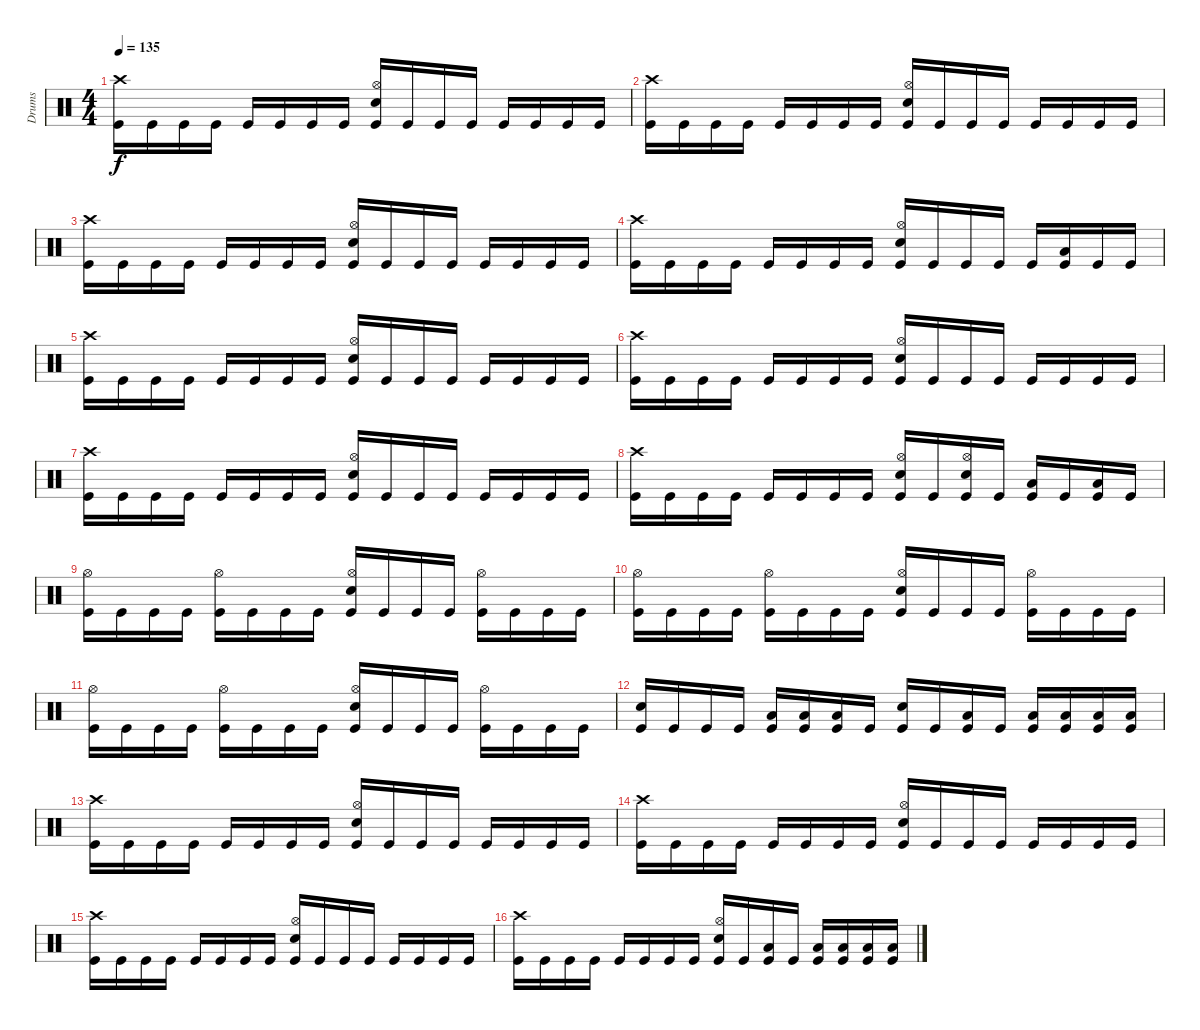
\track ("Drums" "Drums") {instrument percussion}
\staff {score}
\articulation defaults
\ts (4 4)
\tempo 135
\clef neutral
\ks c
("Crash high (hit)" "Kick (hit)").16{dy f} "Kick (hit)".16 "Kick (hit)".16 "Kick (hit)".16 "Kick (hit)".16 "Kick (hit)".16 "Kick (hit)".16 "Kick (hit)".16 ("Hi-Hat (open)" "Electric Snare (hit)" "Kick (hit)").16 "Kick (hit)".16 "Kick (hit)".16 "Kick (hit)".16 "Kick (hit)".16 "Kick (hit)".16 "Kick (hit)".16 "Kick (hit)".16 |
("Crash high (hit)" "Kick (hit)").16 "Kick (hit)".16 "Kick (hit)".16 "Kick (hit)".16 "Kick (hit)".16 "Kick (hit)".16 "Kick (hit)".16 "Kick (hit)".16 ("Hi-Hat (open)" "Electric Snare (hit)" "Kick (hit)").16 "Kick (hit)".16 "Kick (hit)".16 "Kick (hit)".16 "Kick (hit)".16 "Kick (hit)".16 "Kick (hit)".16 "Kick (hit)".16 |
("Crash high (hit)" "Kick (hit)").16 "Kick (hit)".16 "Kick (hit)".16 "Kick (hit)".16 "Kick (hit)".16 "Kick (hit)".16 "Kick (hit)".16 "Kick (hit)".16 ("Hi-Hat (open)" "Electric Snare (hit)" "Kick (hit)").16 "Kick (hit)".16 "Kick (hit)".16 "Kick (hit)".16 "Kick (hit)".16 "Kick (hit)".16 "Kick (hit)".16 "Kick (hit)".16 |
("Crash high (hit)" "Kick (hit)").16 "Kick (hit)".16 "Kick (hit)".16 "Kick (hit)".16 "Kick (hit)".16 "Kick (hit)".16 "Kick (hit)".16 "Kick (hit)".16 ("Hi-Hat (open)" "Electric Snare (hit)" "Kick (hit)").16 "Kick (hit)".16 "Kick (hit)".16 "Kick (hit)".16 "Kick (hit)".16 ("Low Tom (hit)" "Kick (hit)").16 "Kick (hit)".16 "Kick (hit)".16 |
("Crash high (hit)" "Kick (hit)").16 "Kick (hit)".16 "Kick (hit)".16 "Kick (hit)".16 "Kick (hit)".16 "Kick (hit)".16 "Kick (hit)".16 "Kick (hit)".16 ("Hi-Hat (open)" "Electric Snare (hit)" "Kick (hit)").16 "Kick (hit)".16 "Kick (hit)".16 "Kick (hit)".16 "Kick (hit)".16 "Kick (hit)".16 "Kick (hit)".16 "Kick (hit)".16 |
("Crash high (hit)" "Kick (hit)").16 "Kick (hit)".16 "Kick (hit)".16 "Kick (hit)".16 "Kick (hit)".16 "Kick (hit)".16 "Kick (hit)".16 "Kick (hit)".16 ("Hi-Hat (open)" "Electric Snare (hit)" "Kick (hit)").16 "Kick (hit)".16 "Kick (hit)".16 "Kick (hit)".16 "Kick (hit)".16 "Kick (hit)".16 "Kick (hit)".16 "Kick (hit)".16 |
("Crash high (hit)" "Kick (hit)").16 "Kick (hit)".16 "Kick (hit)".16 "Kick (hit)".16 "Kick (hit)".16 "Kick (hit)".16 "Kick (hit)".16 "Kick (hit)".16 ("Hi-Hat (open)" "Electric Snare (hit)" "Kick (hit)").16 "Kick (hit)".16 "Kick (hit)".16 "Kick (hit)".16 "Kick (hit)".16 "Kick (hit)".16 "Kick (hit)".16 "Kick (hit)".16 |
("Crash high (hit)" "Kick (hit)").16 "Kick (hit)".16 "Kick (hit)".16 "Kick (hit)".16 "Kick (hit)".16 "Kick (hit)".16 "Kick (hit)".16 "Kick (hit)".16 ("Hi-Hat (open)" "Electric Snare (hit)" "Kick (hit)").16 "Kick (hit)".16 ("Hi-Hat (open)" "Electric Snare (hit)" "Kick (hit)").16 "Kick (hit)".16 ("Low Tom (hit)" "Kick (hit)").16 "Kick (hit)".16 ("Low Tom (hit)" "Kick (hit)").16 "Kick (hit)".16 |
("Hi-Hat (open)" "Kick (hit)").16 "Kick (hit)".16 "Kick (hit)".16 "Kick (hit)".16 ("Hi-Hat (open)" "Kick (hit)").16 "Kick (hit)".16 "Kick (hit)".16 "Kick (hit)".16 ("Hi-Hat (open)" "Electric Snare (hit)" "Kick (hit)").16 "Kick (hit)".16 "Kick (hit)".16 "Kick (hit)".16 ("Hi-Hat (open)" "Kick (hit)").16 "Kick (hit)".16 "Kick (hit)".16 "Kick (hit)".16 |
("Hi-Hat (open)" "Kick (hit)").16 "Kick (hit)".16 "Kick (hit)".16 "Kick (hit)".16 ("Hi-Hat (open)" "Kick (hit)").16 "Kick (hit)".16 "Kick (hit)".16 "Kick (hit)".16 ("Hi-Hat (open)" "Electric Snare (hit)" "Kick (hit)").16 "Kick (hit)".16 "Kick (hit)".16 "Kick (hit)".16 ("Hi-Hat (open)" "Kick (hit)").16 "Kick (hit)".16 "Kick (hit)".16 "Kick (hit)".16 |
("Hi-Hat (open)" "Kick (hit)").16 "Kick (hit)".16 "Kick (hit)".16 "Kick (hit)".16 ("Hi-Hat (open)" "Kick (hit)").16 "Kick (hit)".16 "Kick (hit)".16 "Kick (hit)".16 ("Hi-Hat (open)" "Electric Snare (hit)" "Kick (hit)").16 "Kick (hit)".16 "Kick (hit)".16 "Kick (hit)".16 ("Hi-Hat (open)" "Kick (hit)").16 "Kick (hit)".16 "Kick (hit)".16 "Kick (hit)".16 |
("Electric Snare (hit)" "Kick (hit)").16 "Kick (hit)".16 "Kick (hit)".16 "Kick (hit)".16 ("Low Tom (hit)" "Kick (hit)").16 ("Low Tom (hit)" "Kick (hit)").16 ("Low Tom (hit)" "Kick (hit)").16 "Kick (hit)".16 ("Electric Snare (hit)" "Kick (hit)").16 "Kick (hit)".16 ("Low Tom (hit)" "Kick (hit)").16 "Kick (hit)".16 ("Low Tom (hit)" "Kick (hit)").16 ("Low Tom (hit)" "Kick (hit)").16 ("Low Tom (hit)" "Kick (hit)").16 ("Low Tom (hit)" "Kick (hit)").16 |
("Crash high (hit)" "Kick (hit)").16 "Kick (hit)".16 "Kick (hit)".16 "Kick (hit)".16 "Kick (hit)".16 "Kick (hit)".16 "Kick (hit)".16 "Kick (hit)".16 ("Hi-Hat (open)" "Electric Snare (hit)" "Kick (hit)").16 "Kick (hit)".16 "Kick (hit)".16 "Kick (hit)".16 "Kick (hit)".16 "Kick (hit)".16 "Kick (hit)".16 "Kick (hit)".16 |
("Crash high (hit)" "Kick (hit)").16 "Kick (hit)".16 "Kick (hit)".16 "Kick (hit)".16 "Kick (hit)".16 "Kick (hit)".16 "Kick (hit)".16 "Kick (hit)".16 ("Hi-Hat (open)" "Electric Snare (hit)" "Kick (hit)").16 "Kick (hit)".16 "Kick (hit)".16 "Kick (hit)".16 "Kick (hit)".16 "Kick (hit)".16 "Kick (hit)".16 "Kick (hit)".16 |
("Crash high (hit)" "Kick (hit)").16 "Kick (hit)".16 "Kick (hit)".16 "Kick (hit)".16 "Kick (hit)".16 "Kick (hit)".16 "Kick (hit)".16 "Kick (hit)".16 ("Hi-Hat (open)" "Electric Snare (hit)" "Kick (hit)").16 "Kick (hit)".16 "Kick (hit)".16 "Kick (hit)".16 "Kick (hit)".16 "Kick (hit)".16 "Kick (hit)".16 "Kick (hit)".16 |
("Crash high (hit)" "Kick (hit)").16 "Kick (hit)".16 "Kick (hit)".16 "Kick (hit)".16 "Kick (hit)".16 "Kick (hit)".16 "Kick (hit)".16 "Kick (hit)".16 ("Hi-Hat (open)" "Electric Snare (hit)" "Kick (hit)").16 "Kick (hit)".16 ("Low Tom (hit)" "Kick (hit)").16 "Kick (hit)".16 ("Low Tom (hit)" "Kick (hit)").16 ("Low Tom (hit)" "Kick (hit)").16 ("Low Tom (hit)" "Kick (hit)").16 ("Low Tom (hit)" "Kick (hit)").16
